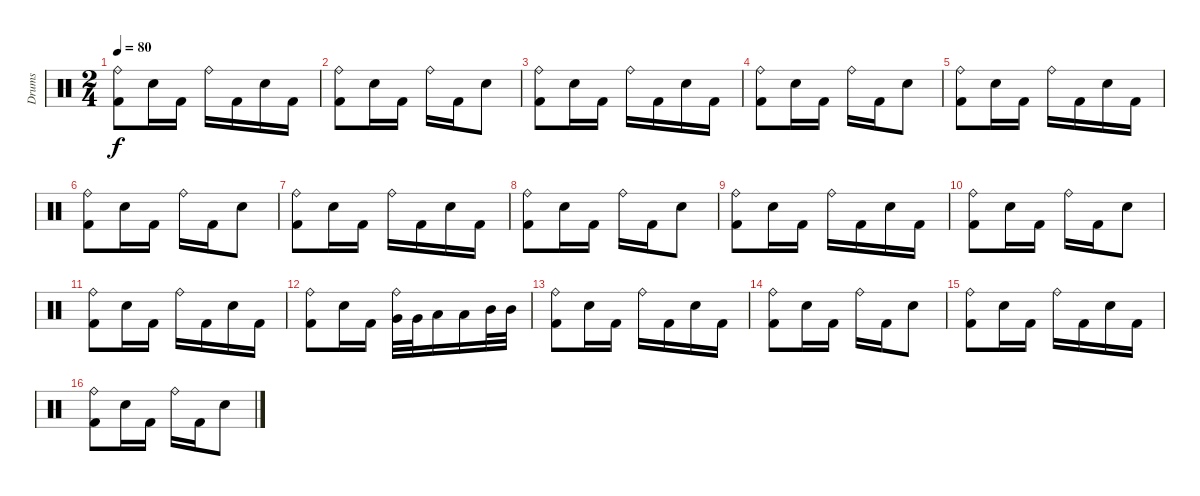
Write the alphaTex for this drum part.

\track ("Drums" "Drums") {instrument percussion}
\staff {score}
\articulation defaults
\ts (2 4)
\tempo 80
\clef neutral
\ks aminor
("Kick (hit) 2" "Ride (bell)").8{dy f} "Electric Snare (hit)".16 "Kick (hit) 2".16 "Ride (bell)".16 "Kick (hit) 2".16 "Electric Snare (hit)".16 "Kick (hit) 2".16 |
("Kick (hit) 2" "Ride (bell)").8 "Electric Snare (hit)".16 "Kick (hit) 2".16 "Ride (bell)".16 "Kick (hit) 2".16 "Electric Snare (hit)".8 |
("Kick (hit) 2" "Ride (bell)").8 "Electric Snare (hit)".16 "Kick (hit) 2".16 "Ride (bell)".16 "Kick (hit) 2".16 "Electric Snare (hit)".16 "Kick (hit) 2".16 |
("Kick (hit) 2" "Ride (bell)").8 "Electric Snare (hit)".16 "Kick (hit) 2".16 "Ride (bell)".16 "Kick (hit) 2".16 "Electric Snare (hit)".8 |
("Kick (hit) 2" "Ride (bell)").8 "Electric Snare (hit)".16 "Kick (hit) 2".16 "Ride (bell)".16 "Kick (hit) 2".16 "Electric Snare (hit)".16 "Kick (hit) 2".16 |
("Kick (hit) 2" "Ride (bell)").8 "Electric Snare (hit)".16 "Kick (hit) 2".16 "Ride (bell)".16 "Kick (hit) 2".16 "Electric Snare (hit)".8 |
("Kick (hit) 2" "Ride (bell)").8 "Electric Snare (hit)".16 "Kick (hit) 2".16 "Ride (bell)".16 "Kick (hit) 2".16 "Electric Snare (hit)".16 "Kick (hit) 2".16 |
("Kick (hit) 2" "Ride (bell)").8 "Electric Snare (hit)".16 "Kick (hit) 2".16 "Ride (bell)".16 "Kick (hit) 2".16 "Electric Snare (hit)".8 |
("Kick (hit) 2" "Ride (bell)").8 "Electric Snare (hit)".16 "Kick (hit) 2".16 "Ride (bell)".16 "Kick (hit) 2".16 "Electric Snare (hit)".16 "Kick (hit) 2".16 |
("Kick (hit) 2" "Ride (bell)").8 "Electric Snare (hit)".16 "Kick (hit) 2".16 "Ride (bell)".16 "Kick (hit) 2".16 "Electric Snare (hit)".8 |
("Kick (hit) 2" "Ride (bell)").8 "Electric Snare (hit)".16 "Kick (hit) 2".16 "Ride (bell)".16 "Kick (hit) 2".16 "Electric Snare (hit)".16 "Kick (hit) 2".16 |
("Kick (hit) 2" "Ride (bell)").8 "Electric Snare (hit)".16 "Kick (hit) 2".16 ("Very Low Tom (hit)" "Ride (bell)").32 "Very Low Tom (hit)".32 "Low Tom (hit)".16 "Low Tom (hit)".16 "Mid Tom (hit)".32 "Mid Tom (hit)".32 |
("Kick (hit) 2" "Ride (bell)").8 "Electric Snare (hit)".16 "Kick (hit) 2".16 "Ride (bell)".16 "Kick (hit) 2".16 "Electric Snare (hit)".16 "Kick (hit) 2".16 |
("Kick (hit) 2" "Ride (bell)").8 "Electric Snare (hit)".16 "Kick (hit) 2".16 "Ride (bell)".16 "Kick (hit) 2".16 "Electric Snare (hit)".8 |
("Kick (hit) 2" "Ride (bell)").8 "Electric Snare (hit)".16 "Kick (hit) 2".16 "Ride (bell)".16 "Kick (hit) 2".16 "Electric Snare (hit)".16 "Kick (hit) 2".16 |
("Kick (hit) 2" "Ride (bell)").8 "Electric Snare (hit)".16 "Kick (hit) 2".16 "Ride (bell)".16 "Kick (hit) 2".16 "Electric Snare (hit)".8
